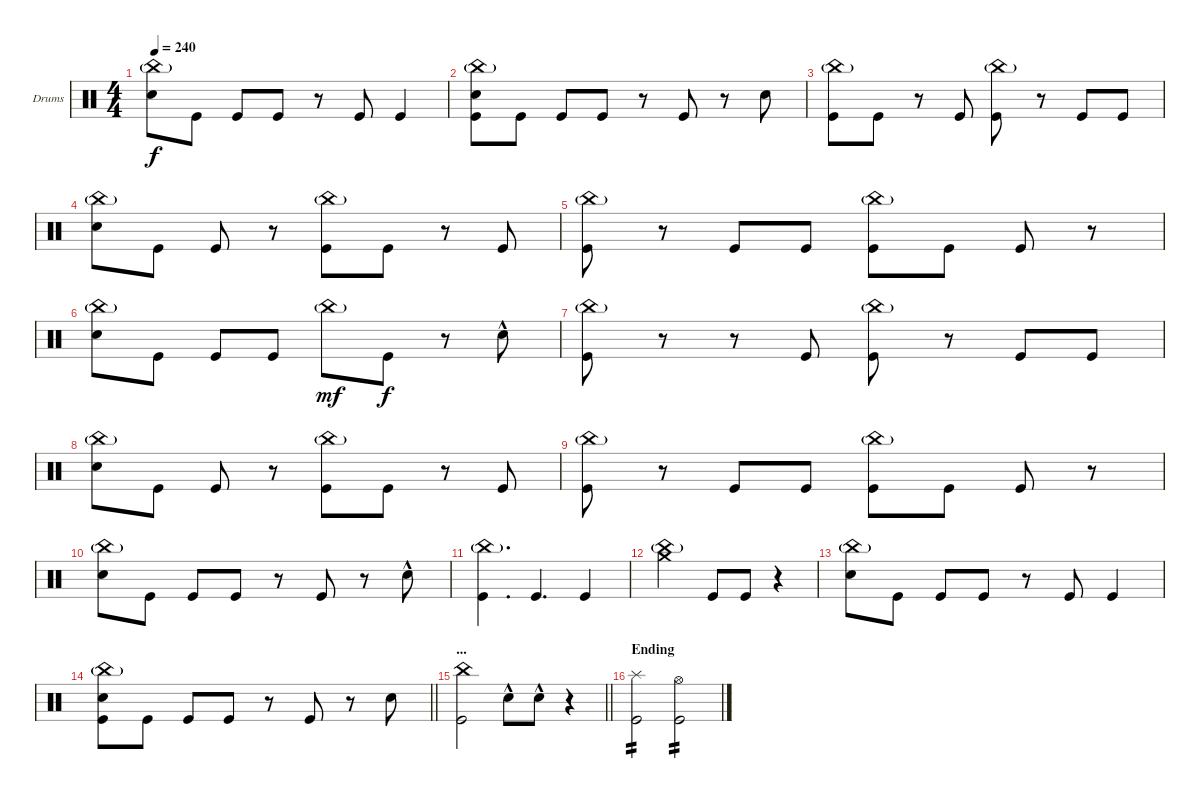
\bracketExtendMode groupsimilarinstruments
\firstSystemTrackNameOrientation horizontal
\otherSystemsTrackNameOrientation horizontal
\track ("Drumkit" "Drums") {instrument percussion}
\staff {score}
\articulation defaults
\ts (4 4)
\tempo 240
\clef neutral
\ks c
("China (hit)"{g} "Snare (hit) 2").8{dy f} "Kick (hit)".8 "Kick (hit)".8 "Kick (hit)".8 r.8 "Kick (hit)".8 "Kick (hit)".4 |
("China (hit)"{g} "Snare (hit) 2" "Kick (hit)").8 "Kick (hit)".8 "Kick (hit)".8 "Kick (hit)".8 r.8 "Kick (hit)".8 r.8 "Snare (hit) 2".8 |
("China (hit)"{g} "Kick (hit)").8 "Kick (hit)".8 r.8 "Kick (hit)".8 ("China (hit)"{g} "Kick (hit)").8 r.8 "Kick (hit)".8 "Kick (hit)".8 |
("China (hit)"{g} "Snare (hit) 2").8 "Kick (hit)".8 "Kick (hit)".8 r.8 ("China (hit)"{g} "Kick (hit)").8 "Kick (hit)".8 r.8 "Kick (hit)".8 |
("China (hit)"{g} "Kick (hit)").8 r.8 "Kick (hit)".8 "Kick (hit)".8 ("China (hit)"{g} "Kick (hit)").8 "Kick (hit)".8 "Kick (hit)".8 r.8 |
("China (hit)"{g} "Snare (hit) 2").8 "Kick (hit)".8 "Kick (hit)".8 "Kick (hit)".8 "China (hit)"{g}.8{dy mf} "Kick (hit)".8{dy f} r.8 "Snare (hit) 2"{hac}.8 |
("China (hit)"{g} "Kick (hit)").8 r.8 r.8 "Kick (hit)".8 ("China (hit)"{g} "Kick (hit)").8 r.8 "Kick (hit)".8 "Kick (hit)".8 |
("China (hit)"{g} "Snare (hit) 2").8 "Kick (hit)".8 "Kick (hit)".8 r.8 ("China (hit)"{g} "Kick (hit)").8 "Kick (hit)".8 r.8 "Kick (hit)".8 |
("China (hit)"{g} "Kick (hit)").8 r.8 "Kick (hit)".8 "Kick (hit)".8 ("China (hit)"{g} "Kick (hit)").8 "Kick (hit)".8 "Kick (hit)".8 r.8 |
("China (hit)"{g} "Snare (hit) 2").8 "Kick (hit)".8 "Kick (hit)".8 "Kick (hit)".8 r.8 "Kick (hit)".8 r.8 "Snare (hit) 2"{hac}.8 |
("China (hit)"{g} "Kick (hit)").4{d} "Kick (hit)".4{d} "Kick (hit)".4 |
("Crash medium (hit)" "China (hit)"{g}).2 "Kick (hit)".8 "Kick (hit)".8 r.4 |
("China (hit)"{g} "Snare (hit) 2").8 "Kick (hit)".8 "Kick (hit)".8 "Kick (hit)".8 r.8 "Kick (hit)".8 "Kick (hit)".4 |
\barLineRight lightlight
("China (hit)"{g} "Snare (hit) 2" "Kick (hit)").8 "Kick (hit)".8 "Kick (hit)".8 "Kick (hit)".8 r.8 "Kick (hit)".8 r.8 "Snare (hit) 2".8 |
\section ("" "...")
\barLineRight lightlight
("China (hit)" "Kick (hit)").2 "Snare (hit) 2"{hac}.8 "Snare (hit) 2"{hac}.8 r.4 |
\section ("" "Ending")
("Splash (hit)" "Kick (hit)").2{tp 2} ("Hi-Hat (open)" "Kick (hit)").2{tp 2}
